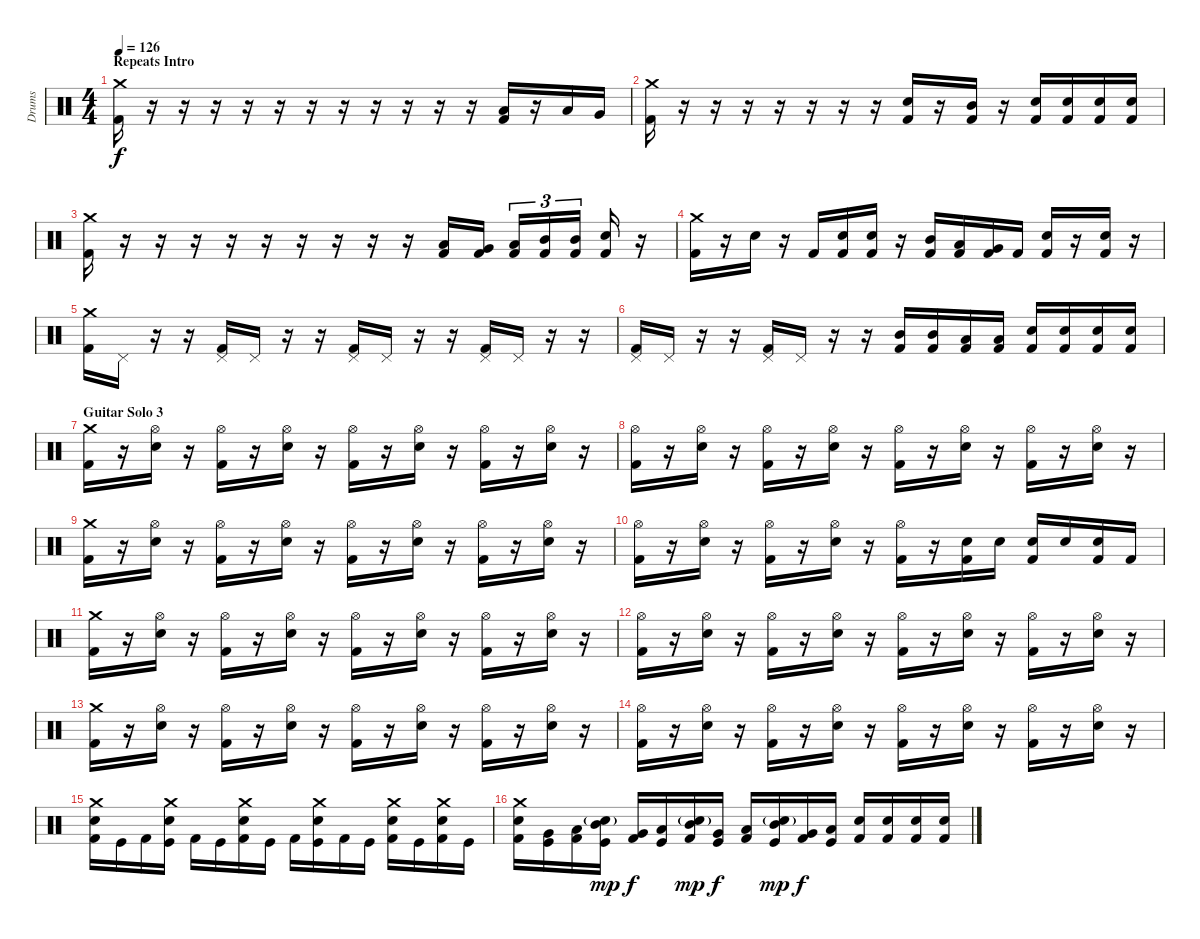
\track ("Drums" "Drums") {instrument percussion}
\staff {score}
\articulation defaults
\ts (4 4)
\section ("" "Repeats Intro")
\tempo 126
\clef neutral
\ks c
("Crash medium (hit)" "Kick (hit) 2").16{dy f} r.16 r.16 r.16 r.16 r.16 r.16 r.16 r.16 r.16 r.16 r.16 ("Low Tom (hit)" "Kick (hit) 2").16 r.16 "Low Tom (hit)".16 "Very Low Tom (hit)".16 |
("Crash medium (hit)" "Kick (hit) 2").16 r.16 r.16 r.16 r.16 r.16 r.16 r.16 ("Electric Snare (hit)" "Kick (hit) 2").16 r.16 ("Mid Tom (hit)" "Kick (hit) 2").16 r.16 ("Electric Snare (hit)" "Kick (hit) 2").16 ("Electric Snare (hit)" "Kick (hit) 2").16 ("Electric Snare (hit)" "Kick (hit) 2").16 ("Electric Snare (hit)" "Kick (hit) 2").16 |
("Crash medium (hit)" "Kick (hit) 2").16 r.16 r.16 r.16 r.16 r.16 r.16 r.16 r.16 r.16 ("Low Floor Tom (hit)" "Kick (hit) 2").16 ("Very Low Tom (hit)" "Kick (hit) 2").16 ("Low Tom (hit)" "Kick (hit) 2").16{tu (3 2)} ("Mid Tom (hit)" "Kick (hit) 2").16{tu (3 2)} ("Mid Tom (hit)" "Kick (hit) 2").16{tu (3 2)} ("Electric Snare (hit)" "Kick (hit) 2").16 r.16 |
("Crash medium (hit)" "Kick (hit) 2").16 r.16 "Electric Snare (hit)".16 r.16 "Kick (hit) 2".16 ("Electric Snare (hit)" "Kick (hit) 2").16 ("Electric Snare (hit)" "Kick (hit) 2").16 r.16 ("Mid Tom (hit)" "Kick (hit) 2").16 ("Low Tom (hit)" "Kick (hit) 2").16 ("Very Low Tom (hit)" "Kick (hit) 2").16 "Kick (hit) 2".16 ("Electric Snare (hit)" "Kick (hit) 2").16 r.16 ("Electric Snare (hit)" "Kick (hit) 2").16 r.16 |
("Crash medium (hit)" "Kick (hit) 2").16 "Pedal Hi-Hat (hit)".16 r.16 r.16 ("Pedal Hi-Hat (hit)" "Kick (hit) 2").16 "Pedal Hi-Hat (hit)".16 r.16 r.16 ("Pedal Hi-Hat (hit)" "Kick (hit) 2").16 "Pedal Hi-Hat (hit)".16 r.16 r.16 ("Pedal Hi-Hat (hit)" "Kick (hit) 2").16 "Pedal Hi-Hat (hit)".16 r.16 r.16 |
("Pedal Hi-Hat (hit)" "Kick (hit) 2").16 "Pedal Hi-Hat (hit)".16 r.16 r.16 ("Pedal Hi-Hat (hit)" "Kick (hit) 2").16 "Pedal Hi-Hat (hit)".16 r.16 r.16 ("Mid Tom (hit)" "Kick (hit) 2").16 ("Mid Tom (hit)" "Kick (hit) 2").16 ("Low Tom (hit)" "Kick (hit) 2").16 ("Low Tom (hit)" "Kick (hit) 2").16 ("Electric Snare (hit)" "Kick (hit) 2").16 ("Electric Snare (hit)" "Kick (hit) 2").16 ("Electric Snare (hit)" "Kick (hit) 2").16 ("Electric Snare (hit)" "Kick (hit) 2").16 |
\section ("" "Guitar Solo 3")
("Crash medium (hit)" "Kick (hit) 2").16 r.16 ("Hi-Hat (open)" "Electric Snare (hit)").16 r.16 ("Hi-Hat (open)" "Kick (hit) 2").16 r.16 ("Hi-Hat (open)" "Electric Snare (hit)").16 r.16 ("Hi-Hat (open)" "Kick (hit) 2").16 r.16 ("Hi-Hat (open)" "Electric Snare (hit)").16 r.16 ("Hi-Hat (open)" "Kick (hit) 2").16 r.16 ("Hi-Hat (open)" "Electric Snare (hit)").16 r.16 |
("Hi-Hat (open)" "Kick (hit) 2").16 r.16 ("Hi-Hat (open)" "Electric Snare (hit)").16 r.16 ("Hi-Hat (open)" "Kick (hit) 2").16 r.16 ("Hi-Hat (open)" "Electric Snare (hit)").16 r.16 ("Hi-Hat (open)" "Kick (hit) 2").16 r.16 ("Hi-Hat (open)" "Electric Snare (hit)").16 r.16 ("Hi-Hat (open)" "Kick (hit) 2").16 r.16 ("Hi-Hat (open)" "Electric Snare (hit)").16 r.16 |
("Crash medium (hit)" "Kick (hit) 2").16 r.16 ("Hi-Hat (open)" "Electric Snare (hit)").16 r.16 ("Hi-Hat (open)" "Kick (hit) 2").16 r.16 ("Hi-Hat (open)" "Electric Snare (hit)").16 r.16 ("Hi-Hat (open)" "Kick (hit) 2").16 r.16 ("Hi-Hat (open)" "Electric Snare (hit)").16 r.16 ("Hi-Hat (open)" "Kick (hit) 2").16 r.16 ("Hi-Hat (open)" "Electric Snare (hit)").16 r.16 |
("Hi-Hat (open)" "Kick (hit) 2").16 r.16 ("Hi-Hat (open)" "Electric Snare (hit)").16 r.16 ("Hi-Hat (open)" "Kick (hit) 2").16 r.16 ("Hi-Hat (open)" "Electric Snare (hit)").16 r.16 ("Hi-Hat (open)" "Kick (hit) 2").16 r.16 ("Electric Snare (hit)" "Kick (hit) 2").16 "Electric Snare (hit)".16 ("Electric Snare (hit)" "Kick (hit) 2").16 "Electric Snare (hit)".16 ("Electric Snare (hit)" "Kick (hit) 2").16 "Kick (hit) 2".16 |
("Crash medium (hit)" "Kick (hit) 2").16 r.16 ("Hi-Hat (open)" "Electric Snare (hit)").16 r.16 ("Hi-Hat (open)" "Kick (hit) 2").16 r.16 ("Hi-Hat (open)" "Electric Snare (hit)").16 r.16 ("Hi-Hat (open)" "Kick (hit) 2").16 r.16 ("Hi-Hat (open)" "Electric Snare (hit)").16 r.16 ("Hi-Hat (open)" "Kick (hit) 2").16 r.16 ("Hi-Hat (open)" "Electric Snare (hit)").16 r.16 |
("Hi-Hat (open)" "Kick (hit) 2").16 r.16 ("Hi-Hat (open)" "Electric Snare (hit)").16 r.16 ("Hi-Hat (open)" "Kick (hit) 2").16 r.16 ("Hi-Hat (open)" "Electric Snare (hit)").16 r.16 ("Hi-Hat (open)" "Kick (hit) 2").16 r.16 ("Hi-Hat (open)" "Electric Snare (hit)").16 r.16 ("Hi-Hat (open)" "Kick (hit) 2").16 r.16 ("Hi-Hat (open)" "Electric Snare (hit)").16 r.16 |
("Crash medium (hit)" "Kick (hit) 2").16 r.16 ("Hi-Hat (open)" "Electric Snare (hit)").16 r.16 ("Hi-Hat (open)" "Kick (hit) 2").16 r.16 ("Hi-Hat (open)" "Electric Snare (hit)").16 r.16 ("Hi-Hat (open)" "Kick (hit) 2").16 r.16 ("Hi-Hat (open)" "Electric Snare (hit)").16 r.16 ("Hi-Hat (open)" "Kick (hit) 2").16 r.16 ("Hi-Hat (open)" "Electric Snare (hit)").16 r.16 |
("Hi-Hat (open)" "Kick (hit) 2").16 r.16 ("Hi-Hat (open)" "Electric Snare (hit)").16 r.16 ("Hi-Hat (open)" "Kick (hit) 2").16 r.16 ("Hi-Hat (open)" "Electric Snare (hit)").16 r.16 ("Hi-Hat (open)" "Kick (hit) 2").16 r.16 ("Hi-Hat (open)" "Electric Snare (hit)").16 r.16 ("Hi-Hat (open)" "Kick (hit) 2").16 r.16 ("Hi-Hat (open)" "Electric Snare (hit)").16 r.16 |
("Crash medium (hit)" "Electric Snare (hit)" "Kick (hit) 2").16 "Kick (hit)".16 "Kick (hit) 2".16 ("Crash medium (hit)" "Electric Snare (hit)" "Kick (hit)").16 "Kick (hit) 2".16 "Kick (hit)".16 ("Crash medium (hit)" "Electric Snare (hit)" "Kick (hit) 2").16 "Kick (hit)".16 "Kick (hit) 2".16 ("Crash medium (hit)" "Electric Snare (hit)" "Kick (hit)").16 "Kick (hit) 2".16 "Kick (hit)".16 ("Crash medium (hit)" "Electric Snare (hit)" "Kick (hit) 2").16 "Kick (hit)".16 ("Crash medium (hit)" "Electric Snare (hit)" "Kick (hit) 2").16 "Kick (hit)".16 |
("Crash medium (hit)" "Electric Snare (hit)" "Kick (hit) 2").16 ("Very Low Tom (hit)" "Kick (hit)").16 ("Low Tom (hit)" "Kick (hit) 2").16 ("Mid Tom (hit)" "Electric Snare (hit)"{g} "Kick (hit)").16{dy mp} ("Very Low Tom (hit)" "Kick (hit) 2").16{dy f} ("Low Tom (hit)" "Kick (hit)").16 ("Mid Tom (hit)" "Electric Snare (hit)"{g} "Kick (hit) 2").16{dy mp} ("Very Low Tom (hit)" "Kick (hit)").16{dy f} ("Low Tom (hit)" "Kick (hit) 2").16 ("Mid Tom (hit)" "Electric Snare (hit)"{g} "Kick (hit)").16{dy mp} ("Very Low Tom (hit)" "Kick (hit) 2").16{dy f} ("Low Tom (hit)" "Kick (hit)").16 ("Electric Snare (hit)" "Kick (hit) 2").16 ("Electric Snare (hit)" "Kick (hit) 2").16 ("Electric Snare (hit)" "Kick (hit) 2").16 ("Electric Snare (hit)" "Kick (hit) 2").16
